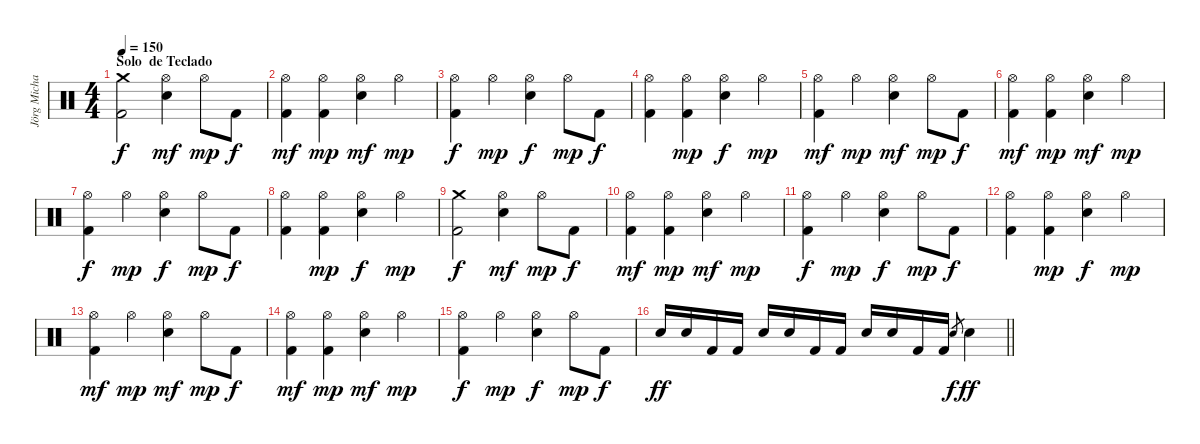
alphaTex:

\track ("Jörg Michael" "Jörg Micha") {instrument percussion}
\staff {score}
\articulation defaults
\ts (4 4)
\section ("" "Solo  de Teclado")
\tempo 150
\clef neutral
\ks c
("Crash medium (hit)" "Kick (hit) 2").2{dy f} ("Hi-Hat (open)" "Electric Snare (hit)").4{dy mf} "Hi-Hat (open)".8{dy mp} "Kick (hit) 2".8{dy f} |
("Hi-Hat (open)" "Kick (hit) 2").4{dy mf} ("Hi-Hat (open)" "Kick (hit) 2").4{dy mp} ("Hi-Hat (open)" "Electric Snare (hit)").4{dy mf} "Hi-Hat (open)".4{dy mp} |
("Hi-Hat (open)" "Kick (hit) 2").4{dy f} "Hi-Hat (open)".4{dy mp} ("Hi-Hat (open)" "Electric Snare (hit)").4{dy f} "Hi-Hat (open)".8{dy mp} "Kick (hit) 2".8{dy f} |
("Hi-Hat (open)" "Kick (hit) 2").4 ("Hi-Hat (open)" "Kick (hit) 2").4{dy mp} ("Hi-Hat (open)" "Electric Snare (hit)").4{dy f} "Hi-Hat (open)".4{dy mp} |
("Hi-Hat (open)" "Kick (hit) 2").4{dy mf} "Hi-Hat (open)".4{dy mp} ("Hi-Hat (open)" "Electric Snare (hit)").4{dy mf} "Hi-Hat (open)".8{dy mp} "Kick (hit) 2".8{dy f} |
("Hi-Hat (open)" "Kick (hit) 2").4{dy mf} ("Hi-Hat (open)" "Kick (hit) 2").4{dy mp} ("Hi-Hat (open)" "Electric Snare (hit)").4{dy mf} "Hi-Hat (open)".4{dy mp} |
("Hi-Hat (open)" "Kick (hit) 2").4{dy f} "Hi-Hat (open)".4{dy mp} ("Hi-Hat (open)" "Electric Snare (hit)").4{dy f} "Hi-Hat (open)".8{dy mp} "Kick (hit) 2".8{dy f} |
("Hi-Hat (open)" "Kick (hit) 2").4 ("Hi-Hat (open)" "Kick (hit) 2").4{dy mp} ("Hi-Hat (open)" "Electric Snare (hit)").4{dy f} "Hi-Hat (open)".4{dy mp} |
("Crash medium (hit)" "Kick (hit) 2").2{dy f} ("Hi-Hat (open)" "Electric Snare (hit)").4{dy mf} "Hi-Hat (open)".8{dy mp} "Kick (hit) 2".8{dy f} |
("Hi-Hat (open)" "Kick (hit) 2").4{dy mf} ("Hi-Hat (open)" "Kick (hit) 2").4{dy mp} ("Hi-Hat (open)" "Electric Snare (hit)").4{dy mf} "Hi-Hat (open)".4{dy mp} |
("Hi-Hat (open)" "Kick (hit) 2").4{dy f} "Hi-Hat (open)".4{dy mp} ("Hi-Hat (open)" "Electric Snare (hit)").4{dy f} "Hi-Hat (open)".8{dy mp} "Kick (hit) 2".8{dy f} |
("Hi-Hat (open)" "Kick (hit) 2").4 ("Hi-Hat (open)" "Kick (hit) 2").4{dy mp} ("Hi-Hat (open)" "Electric Snare (hit)").4{dy f} "Hi-Hat (open)".4{dy mp} |
("Hi-Hat (open)" "Kick (hit) 2").4{dy mf} "Hi-Hat (open)".4{dy mp} ("Hi-Hat (open)" "Electric Snare (hit)").4{dy mf} "Hi-Hat (open)".8{dy mp} "Kick (hit) 2".8{dy f} |
("Hi-Hat (open)" "Kick (hit) 2").4{dy mf} ("Hi-Hat (open)" "Kick (hit) 2").4{dy mp} ("Hi-Hat (open)" "Electric Snare (hit)").4{dy mf} "Hi-Hat (open)".4{dy mp} |
("Hi-Hat (open)" "Kick (hit) 2").4{dy f} "Hi-Hat (open)".4{dy mp} ("Hi-Hat (open)" "Electric Snare (hit)").4{dy f} "Hi-Hat (open)".8{dy mp} "Kick (hit) 2".8{dy f} |
\barLineRight lightlight "Electric Snare (hit)".16{dy ff} "Electric Snare (hit)".16 "Kick (hit) 2".16 "Kick (hit) 2".16 "Electric Snare (hit)".16 "Electric Snare (hit)".16 "Kick (hit) 2".16 "Kick (hit) 2".16 "Electric Snare (hit)".16 "Electric Snare (hit)".16 "Kick (hit) 2".16 "Kick (hit) 2".16 "Electric Snare (hit)".8{gr dy f} "Electric Snare (hit)".4{dy ff}
